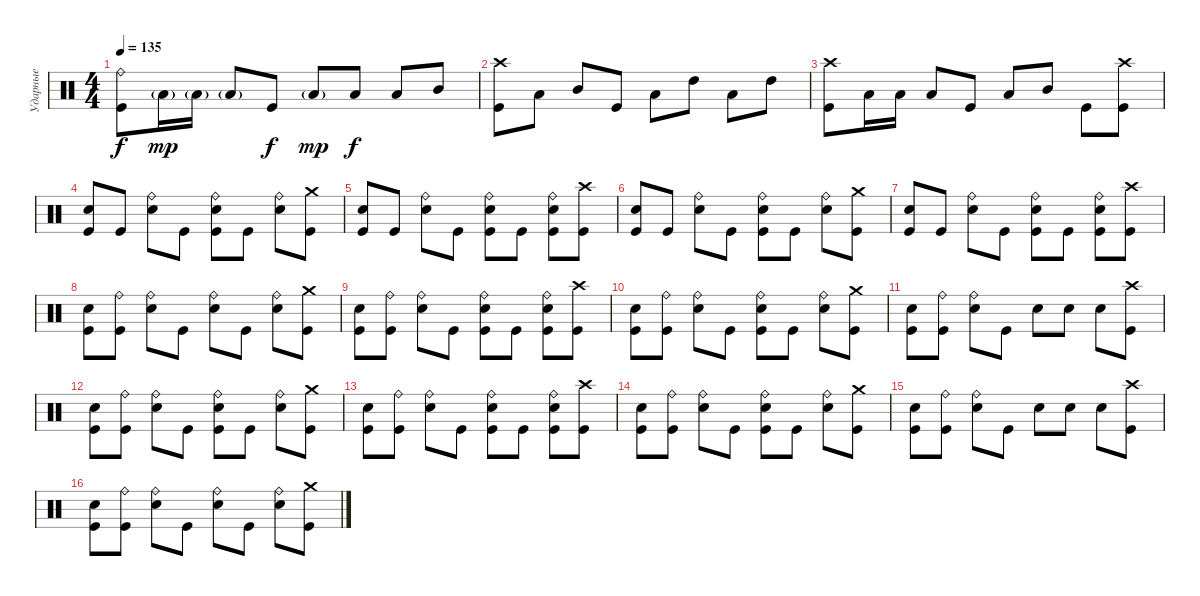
\track ("Ударные" "Ударные") {instrument percussion}
\staff {score}
\articulation defaults
\ts (4 4)
\tempo 135
\clef neutral
\ks c
("Ride (bell)" "Kick (hit)").8{dy f} "Low Tom (hit)"{g}.16{dy mp} "Low Tom (hit)"{g}.16 "Low Tom (hit)"{g}.8 "Kick (hit)".8{dy f} "Low Tom (hit)"{g}.8{dy mp} "Low Tom (hit)".8{dy f} "Low Tom (hit)".8 "Mid Tom (hit)".8 |
("Crash high (hit)" "Kick (hit)").8 "Low Tom (hit)".8 "Mid Tom (hit)".8 "Kick (hit)".8 "Low Tom (hit)".8 "High Tom (hit)".8 "Low Tom (hit)".8 "High Tom (hit)".8 |
("Crash high (hit)" "Kick (hit)").8 "Low Tom (hit)".16 "Low Tom (hit)".16 "Low Tom (hit)".8 "Kick (hit)".8 "Low Tom (hit)".8 "Mid Tom (hit)".8 "Kick (hit)".8 ("Crash high (hit)" "Kick (hit)").8 |
("Electric Snare (hit)" "Kick (hit)").8 "Kick (hit)".8 ("Ride (bell)" "Electric Snare (hit)").8 "Kick (hit)".8 ("Ride (bell)" "Electric Snare (hit)" "Kick (hit)").8 "Kick (hit)".8 ("Ride (bell)" "Electric Snare (hit)").8 ("Crash medium (hit)" "Kick (hit)").8 |
("Electric Snare (hit)" "Kick (hit)").8 "Kick (hit)".8 ("Ride (bell)" "Electric Snare (hit)").8 "Kick (hit)".8 ("Ride (bell)" "Electric Snare (hit)" "Kick (hit)").8 "Kick (hit)".8 ("Ride (bell)" "Electric Snare (hit)" "Kick (hit)").8 ("Crash high (hit)" "Kick (hit)").8 |
("Electric Snare (hit)" "Kick (hit)").8 "Kick (hit)".8 ("Ride (bell)" "Electric Snare (hit)").8 "Kick (hit)".8 ("Ride (bell)" "Electric Snare (hit)" "Kick (hit)").8 "Kick (hit)".8 ("Ride (bell)" "Electric Snare (hit)").8 ("Crash medium (hit)" "Kick (hit)").8 |
("Electric Snare (hit)" "Kick (hit)").8 "Kick (hit)".8 ("Ride (bell)" "Electric Snare (hit)").8 "Kick (hit)".8 ("Ride (bell)" "Electric Snare (hit)" "Kick (hit)").8 "Kick (hit)".8 ("Ride (bell)" "Electric Snare (hit)" "Kick (hit)").8 ("Crash high (hit)" "Kick (hit)").8 |
("Electric Snare (hit)" "Kick (hit)").8 ("Ride (bell)" "Kick (hit)").8 ("Ride (bell)" "Electric Snare (hit)").8 "Kick (hit)".8 ("Ride (bell)" "Electric Snare (hit)").8 "Kick (hit)".8 ("Ride (bell)" "Electric Snare (hit)").8 ("Crash medium (hit)" "Kick (hit)").8 |
("Electric Snare (hit)" "Kick (hit)").8 ("Ride (bell)" "Kick (hit)").8 ("Ride (bell)" "Electric Snare (hit)").8 "Kick (hit)".8 ("Ride (bell)" "Electric Snare (hit)" "Kick (hit)").8 "Kick (hit)".8 ("Ride (bell)" "Electric Snare (hit)" "Kick (hit)").8 ("Crash high (hit)" "Kick (hit)").8 |
("Electric Snare (hit)" "Kick (hit)").8 ("Ride (bell)" "Kick (hit)").8 ("Ride (bell)" "Electric Snare (hit)").8 "Kick (hit)".8 ("Ride (bell)" "Electric Snare (hit)" "Kick (hit)").8 "Kick (hit)".8 ("Ride (bell)" "Electric Snare (hit)").8 ("Crash medium (hit)" "Kick (hit)").8 |
("Electric Snare (hit)" "Kick (hit)").8 ("Ride (bell)" "Kick (hit)").8 ("Ride (bell)" "Electric Snare (hit)").8 "Kick (hit)".8 "Electric Snare (hit)".8 "Electric Snare (hit)".8 "Electric Snare (hit)".8 ("Crash high (hit)" "Kick (hit)").8 |
("Electric Snare (hit)" "Kick (hit)").8 ("Ride (bell)" "Kick (hit)").8 ("Ride (bell)" "Electric Snare (hit)").8 "Kick (hit)".8 ("Ride (bell)" "Electric Snare (hit)" "Kick (hit)").8 "Kick (hit)".8 ("Ride (bell)" "Electric Snare (hit)").8 ("Crash medium (hit)" "Kick (hit)").8 |
("Electric Snare (hit)" "Kick (hit)").8 ("Ride (bell)" "Kick (hit)").8 ("Ride (bell)" "Electric Snare (hit)").8 "Kick (hit)".8 ("Ride (bell)" "Electric Snare (hit)" "Kick (hit)").8 "Kick (hit)".8 ("Ride (bell)" "Electric Snare (hit)" "Kick (hit)").8 ("Crash high (hit)" "Kick (hit)").8 |
("Electric Snare (hit)" "Kick (hit)").8 ("Ride (bell)" "Kick (hit)").8 ("Ride (bell)" "Electric Snare (hit)").8 "Kick (hit)".8 ("Ride (bell)" "Electric Snare (hit)" "Kick (hit)").8 "Kick (hit)".8 ("Ride (bell)" "Electric Snare (hit)").8 ("Crash medium (hit)" "Kick (hit)").8 |
("Electric Snare (hit)" "Kick (hit)").8 ("Ride (bell)" "Kick (hit)").8 ("Ride (bell)" "Electric Snare (hit)").8 "Kick (hit)".8 "Electric Snare (hit)".8 "Electric Snare (hit)".8 "Electric Snare (hit)".8 ("Crash high (hit)" "Kick (hit)").8 |
("Electric Snare (hit)" "Kick (hit)").8 ("Ride (bell)" "Kick (hit)").8 ("Ride (bell)" "Electric Snare (hit)").8 "Kick (hit)".8 ("Ride (bell)" "Electric Snare (hit)").8 "Kick (hit)".8 ("Ride (bell)" "Electric Snare (hit)").8 ("Crash medium (hit)" "Kick (hit)").8
